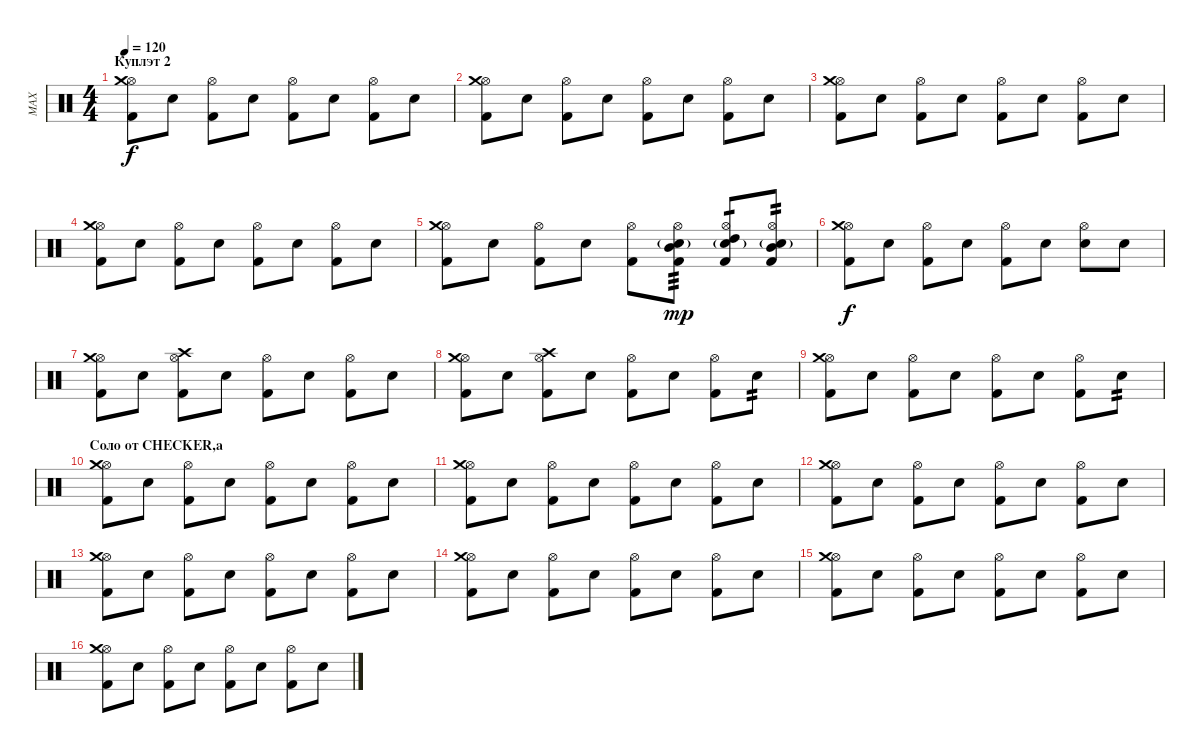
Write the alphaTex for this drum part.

\track ("MAX" "MAX") {instrument percussion}
\staff {score}
\articulation defaults
\ts (4 4)
\section ("" "Куплэт 2")
\tempo 120
\clef neutral
\ks c
("Kick (hit) 2" "Hi-Hat (open)" "Crash medium (hit)").8{dy f} "Snare (hit) 2".8 ("Kick (hit) 2" "Hi-Hat (open)").8 "Snare (hit) 2".8 ("Kick (hit) 2" "Hi-Hat (open)").8 "Snare (hit) 2".8 ("Kick (hit) 2" "Hi-Hat (open)").8 "Snare (hit) 2".8 |
("Kick (hit) 2" "Hi-Hat (open)" "Crash medium (hit)").8 "Snare (hit) 2".8 ("Kick (hit) 2" "Hi-Hat (open)").8 "Snare (hit) 2".8 ("Kick (hit) 2" "Hi-Hat (open)").8 "Snare (hit) 2".8 ("Kick (hit) 2" "Hi-Hat (open)").8 "Snare (hit) 2".8 |
("Kick (hit) 2" "Hi-Hat (open)" "Crash medium (hit)").8 "Snare (hit) 2".8 ("Kick (hit) 2" "Hi-Hat (open)").8 "Snare (hit) 2".8 ("Kick (hit) 2" "Hi-Hat (open)").8 "Snare (hit) 2".8 ("Kick (hit) 2" "Hi-Hat (open)").8 "Snare (hit) 2".8 |
("Kick (hit) 2" "Hi-Hat (open)" "Crash medium (hit)").8 "Snare (hit) 2".8 ("Kick (hit) 2" "Hi-Hat (open)").8 "Snare (hit) 2".8 ("Kick (hit) 2" "Hi-Hat (open)").8 "Snare (hit) 2".8 ("Kick (hit) 2" "Hi-Hat (open)").8 "Snare (hit) 2".8 |
("Kick (hit) 2" "Hi-Hat (open)" "Crash medium (hit)").8 "Snare (hit) 2".8 ("Kick (hit) 2" "Hi-Hat (open)").8 "Snare (hit) 2".8 ("Kick (hit) 2" "Hi-Hat (open)").8 ("Snare (hit) 2"{g} "Kick (hit) 2" "Hi-Hat (open)" "Mid Tom (hit)").8{tp 3 dy mp} ("Snare (hit) 2"{g} "Kick (hit) 2" "Hi-Hat (open)" "High Tom (hit)").8{tp 1} ("Snare (hit) 2"{g} "Kick (hit) 2" "Hi-Hat (open)" "Mid Tom (hit)").8{tp 2} |
("Kick (hit) 2" "Hi-Hat (open)" "Crash medium (hit)").8{dy f} "Snare (hit) 2".8 ("Kick (hit) 2" "Hi-Hat (open)").8 "Snare (hit) 2".8 ("Kick (hit) 2" "Hi-Hat (open)").8 "Snare (hit) 2".8 ("Snare (hit) 2" "Hi-Hat (open)").8 "Snare (hit) 2".8 |
("Kick (hit) 2" "Hi-Hat (open)" "Crash medium (hit)").8 "Snare (hit) 2".8 ("Kick (hit) 2" "Hi-Hat (open)" "Crash high (hit)").8 "Snare (hit) 2".8 ("Kick (hit) 2" "Hi-Hat (open)").8 "Snare (hit) 2".8 ("Kick (hit) 2" "Hi-Hat (open)").8 "Snare (hit) 2".8 |
("Kick (hit) 2" "Hi-Hat (open)" "Crash medium (hit)").8 "Snare (hit) 2".8 ("Kick (hit) 2" "Hi-Hat (open)" "Crash high (hit)").8 "Snare (hit) 2".8 ("Kick (hit) 2" "Hi-Hat (open)").8 "Snare (hit) 2".8 ("Kick (hit) 2" "Hi-Hat (open)").8 "Snare (hit) 2".8{tp 2} |
("Kick (hit) 2" "Hi-Hat (open)" "Crash medium (hit)").8 "Snare (hit) 2".8 ("Kick (hit) 2" "Hi-Hat (open)").8 "Snare (hit) 2".8 ("Kick (hit) 2" "Hi-Hat (open)").8 "Snare (hit) 2".8 ("Kick (hit) 2" "Hi-Hat (open)").8 "Snare (hit) 2".8{tp 2} |
\section ("" "Соло от CHECKER,а")
("Kick (hit) 2" "Hi-Hat (open)" "Crash medium (hit)").8 "Snare (hit) 2".8 ("Kick (hit) 2" "Hi-Hat (open)").8 "Snare (hit) 2".8 ("Kick (hit) 2" "Hi-Hat (open)").8 "Snare (hit) 2".8 ("Kick (hit) 2" "Hi-Hat (open)").8 "Snare (hit) 2".8 |
("Kick (hit) 2" "Hi-Hat (open)" "Crash medium (hit)").8 "Snare (hit) 2".8 ("Kick (hit) 2" "Hi-Hat (open)").8 "Snare (hit) 2".8 ("Kick (hit) 2" "Hi-Hat (open)").8 "Snare (hit) 2".8 ("Kick (hit) 2" "Hi-Hat (open)").8 "Snare (hit) 2".8 |
("Kick (hit) 2" "Hi-Hat (open)" "Crash medium (hit)").8 "Snare (hit) 2".8 ("Kick (hit) 2" "Hi-Hat (open)").8 "Snare (hit) 2".8 ("Kick (hit) 2" "Hi-Hat (open)").8 "Snare (hit) 2".8 ("Kick (hit) 2" "Hi-Hat (open)").8 "Snare (hit) 2".8 |
("Kick (hit) 2" "Hi-Hat (open)" "Crash medium (hit)").8 "Snare (hit) 2".8 ("Kick (hit) 2" "Hi-Hat (open)").8 "Snare (hit) 2".8 ("Kick (hit) 2" "Hi-Hat (open)").8 "Snare (hit) 2".8 ("Kick (hit) 2" "Hi-Hat (open)").8 "Snare (hit) 2".8 |
("Kick (hit) 2" "Hi-Hat (open)" "Crash medium (hit)").8 "Snare (hit) 2".8 ("Kick (hit) 2" "Hi-Hat (open)").8 "Snare (hit) 2".8 ("Kick (hit) 2" "Hi-Hat (open)").8 "Snare (hit) 2".8 ("Kick (hit) 2" "Hi-Hat (open)").8 "Snare (hit) 2".8 |
("Kick (hit) 2" "Hi-Hat (open)" "Crash medium (hit)").8 "Snare (hit) 2".8 ("Kick (hit) 2" "Hi-Hat (open)").8 "Snare (hit) 2".8 ("Kick (hit) 2" "Hi-Hat (open)").8 "Snare (hit) 2".8 ("Kick (hit) 2" "Hi-Hat (open)").8 "Snare (hit) 2".8 |
("Kick (hit) 2" "Hi-Hat (open)" "Crash medium (hit)").8 "Snare (hit) 2".8 ("Kick (hit) 2" "Hi-Hat (open)").8 "Snare (hit) 2".8 ("Kick (hit) 2" "Hi-Hat (open)").8 "Snare (hit) 2".8 ("Kick (hit) 2" "Hi-Hat (open)").8 "Snare (hit) 2".8
